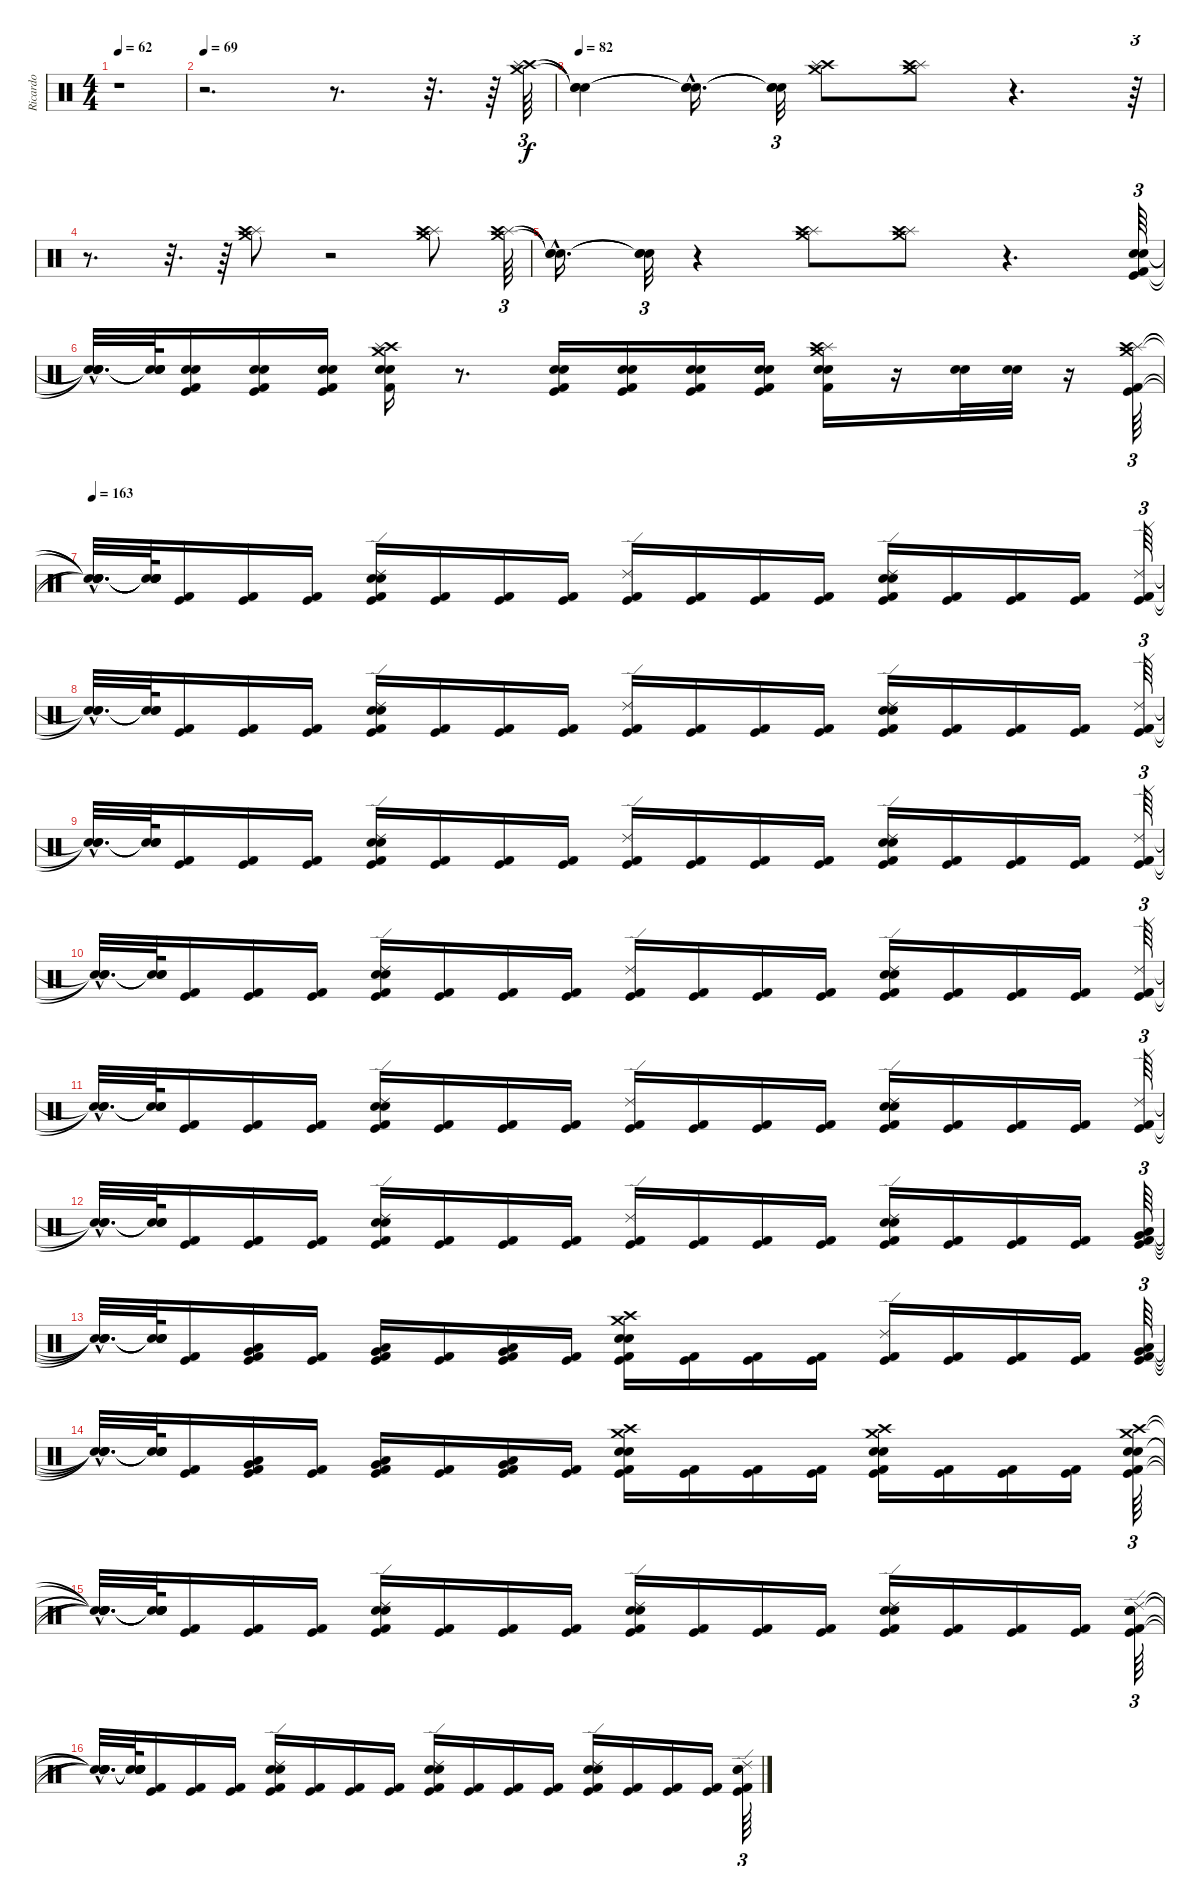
\track ("Ricardo" "Ricardo") {instrument percussion}
\staff {score}
\articulation defaults
\ts (4 4)
\tempo 62
\clef neutral
\ks c
r.1{dy f} |
\tempo 69
r.2{d} r.8{d} r.32{d} r.64 ("Crash high (hit)" "Splash (hit)" "Crash medium (hit)").64{tu (3 2)} |
\tempo 82
("Snare (hit)"{t} "Snare (hit)"{t} "Snare (hit)"{t}).4 ("Snare (hit)"{hac t} "Snare (hit)"{hac t} "Snare (hit)"{hac t}).16{d} ("Snare (hit)"{t} "Snare (hit)"{t} "Snare (hit)"{t}).32{tu (3 2)} ("Crash high (hit)" "Crash medium (hit)" "Splash (hit)").8 ("Splash (hit)" "Crash high (hit)" "Crash medium (hit)").8 r.4{d} r.64{tu (3 2)} |
r.8{d} r.32{d} r.64 ("Crash medium (hit)" "Splash (hit)" "Crash high (hit)").8 r.2 ("Crash medium (hit)" "Splash (hit)" "Crash high (hit)").8 ("Crash medium (hit)" "Splash (hit)" "Crash high (hit)").64{tu (3 2)} |
("Snare (hit)"{hac t} "Snare (hit)"{hac t} "Snare (hit)"{hac t}).16{d} ("Snare (hit)"{t} "Snare (hit)"{t} "Snare (hit)"{t}).32{tu (3 2)} r.4 ("Crash medium (hit)" "Splash (hit)" "Crash high (hit)").8 ("Splash (hit)" "Crash medium (hit)" "Crash high (hit)").8 r.4{d} ("Snare (hit) 2" "Electric Snare (hit)" "Kick (hit) 2" "Kick (hit)").64{tu (3 2)} |
("Snare (hit)"{hac t} "Snare (hit)"{hac t} "Snare (hit)"{hac t} "Snare (hit)"{hac t}).32{d} ("Snare (hit)"{t} "Snare (hit)"{t} "Snare (hit)"{t} "Snare (hit)"{t}).64 ("Electric Snare (hit)" "Snare (hit) 2" "Kick (hit) 2" "Kick (hit)").16 ("Electric Snare (hit)" "Snare (hit) 2" "Kick (hit) 2" "Kick (hit)").16 ("Electric Snare (hit)" "Snare (hit) 2" "Kick (hit) 2" "Kick (hit)").16 ("Crash high (hit)" "Splash (hit)" "Crash medium (hit)" "Electric Snare (hit)" "Snare (hit) 2" "Kick (hit) 2").16 r.8{d} ("Electric Snare (hit)" "Snare (hit) 2" "Kick (hit) 2" "Kick (hit)").16 ("Electric Snare (hit)" "Snare (hit) 2" "Kick (hit) 2" "Kick (hit)").16 ("Electric Snare (hit)" "Snare (hit) 2" "Kick (hit)" "Kick (hit) 2").16 ("Electric Snare (hit)" "Snare (hit) 2" "Kick (hit) 2" "Kick (hit)").16 ("Crash medium (hit)" "Splash (hit)" "Crash high (hit)" "Electric Snare (hit)" "Snare (hit) 2" "Kick (hit) 2").16 r.16 ("Electric Snare (hit)" "Snare (hit) 2").32 ("Electric Snare (hit)" "Snare (hit) 2").32 r.16 ("Splash (hit)" "Crash high (hit)" "Crash medium (hit)" "Kick (hit) 2" "Kick (hit)").64{tu (3 2)} |
\tempo 163
("Snare (hit)"{hac t} "Snare (hit)"{hac t} "Snare (hit)"{hac t} "Snare (hit)"{hac t} "Snare (hit)"{hac t}).32{d} ("Snare (hit)"{t} "Snare (hit)"{t} "Snare (hit)"{t} "Snare (hit)"{t} "Snare (hit)"{t}).64 ("Kick (hit) 2" "Kick (hit)").16 ("Kick (hit) 2" "Kick (hit)").16 ("Kick (hit) 2" "Kick (hit)").16 ("Snare (hit) 2" "Electric Snare (hit)" "Ride (edge) 2" "Kick (hit) 2" "Kick (hit)").16 ("Kick (hit) 2" "Kick (hit)").16 ("Kick (hit) 2" "Kick (hit)").16 ("Kick (hit) 2" "Kick (hit)").16 ("Ride (edge) 2" "Kick (hit) 2" "Kick (hit)").16 ("Kick (hit) 2" "Kick (hit)").16 ("Kick (hit) 2" "Kick (hit)").16 ("Kick (hit) 2" "Kick (hit)").16 ("Electric Snare (hit)" "Snare (hit) 2" "Ride (edge) 2" "Kick (hit) 2" "Kick (hit)").16 ("Kick (hit) 2" "Kick (hit)").16 ("Kick (hit) 2" "Kick (hit)").16 ("Kick (hit) 2" "Kick (hit)").16 ("Ride (edge) 2" "Kick (hit) 2" "Kick (hit)").64{tu (3 2)} |
("Snare (hit)"{hac t} "Snare (hit)"{hac t} "Snare (hit)"{hac t}).32{d} ("Snare (hit)"{t} "Snare (hit)"{t} "Snare (hit)"{t}).64 ("Kick (hit) 2" "Kick (hit)").16 ("Kick (hit) 2" "Kick (hit)").16 ("Kick (hit) 2" "Kick (hit)").16 ("Snare (hit) 2" "Electric Snare (hit)" "Ride (edge) 2" "Kick (hit) 2" "Kick (hit)").16 ("Kick (hit) 2" "Kick (hit)").16 ("Kick (hit) 2" "Kick (hit)").16 ("Kick (hit) 2" "Kick (hit)").16 ("Ride (edge) 2" "Kick (hit) 2" "Kick (hit)").16 ("Kick (hit) 2" "Kick (hit)").16 ("Kick (hit) 2" "Kick (hit)").16 ("Kick (hit) 2" "Kick (hit)").16 ("Electric Snare (hit)" "Snare (hit) 2" "Ride (edge) 2" "Kick (hit) 2" "Kick (hit)").16 ("Kick (hit) 2" "Kick (hit)").16 ("Kick (hit) 2" "Kick (hit)").16 ("Kick (hit) 2" "Kick (hit)").16 ("Ride (edge) 2" "Kick (hit) 2" "Kick (hit)").64{tu (3 2)} |
("Snare (hit)"{hac t} "Snare (hit)"{hac t} "Snare (hit)"{hac t}).32{d} ("Snare (hit)"{t} "Snare (hit)"{t} "Snare (hit)"{t}).64 ("Kick (hit) 2" "Kick (hit)").16 ("Kick (hit) 2" "Kick (hit)").16 ("Kick (hit) 2" "Kick (hit)").16 ("Snare (hit) 2" "Electric Snare (hit)" "Ride (edge) 2" "Kick (hit) 2" "Kick (hit)").16 ("Kick (hit) 2" "Kick (hit)").16 ("Kick (hit) 2" "Kick (hit)").16 ("Kick (hit) 2" "Kick (hit)").16 ("Ride (edge) 2" "Kick (hit) 2" "Kick (hit)").16 ("Kick (hit) 2" "Kick (hit)").16 ("Kick (hit) 2" "Kick (hit)").16 ("Kick (hit) 2" "Kick (hit)").16 ("Electric Snare (hit)" "Snare (hit) 2" "Ride (edge) 2" "Kick (hit) 2" "Kick (hit)").16 ("Kick (hit) 2" "Kick (hit)").16 ("Kick (hit) 2" "Kick (hit)").16 ("Kick (hit) 2" "Kick (hit)").16 ("Ride (edge) 2" "Kick (hit) 2" "Kick (hit)").64{tu (3 2)} |
("Snare (hit)"{hac t} "Snare (hit)"{hac t} "Snare (hit)"{hac t}).32{d} ("Snare (hit)"{t} "Snare (hit)"{t} "Snare (hit)"{t}).64 ("Kick (hit) 2" "Kick (hit)").16 ("Kick (hit) 2" "Kick (hit)").16 ("Kick (hit) 2" "Kick (hit)").16 ("Snare (hit) 2" "Electric Snare (hit)" "Ride (edge) 2" "Kick (hit) 2" "Kick (hit)").16 ("Kick (hit) 2" "Kick (hit)").16 ("Kick (hit) 2" "Kick (hit)").16 ("Kick (hit) 2" "Kick (hit)").16 ("Ride (edge) 2" "Kick (hit) 2" "Kick (hit)").16 ("Kick (hit) 2" "Kick (hit)").16 ("Kick (hit) 2" "Kick (hit)").16 ("Kick (hit) 2" "Kick (hit)").16 ("Electric Snare (hit)" "Snare (hit) 2" "Ride (edge) 2" "Kick (hit) 2" "Kick (hit)").16 ("Kick (hit) 2" "Kick (hit)").16 ("Kick (hit) 2" "Kick (hit)").16 ("Kick (hit) 2" "Kick (hit)").16 ("Ride (edge) 2" "Kick (hit) 2" "Kick (hit)").64{tu (3 2)} |
("Snare (hit)"{hac t} "Snare (hit)"{hac t} "Snare (hit)"{hac t}).32{d} ("Snare (hit)"{t} "Snare (hit)"{t} "Snare (hit)"{t}).64 ("Kick (hit) 2" "Kick (hit)").16 ("Kick (hit) 2" "Kick (hit)").16 ("Kick (hit) 2" "Kick (hit)").16 ("Snare (hit) 2" "Electric Snare (hit)" "Ride (edge) 2" "Kick (hit) 2" "Kick (hit)").16 ("Kick (hit) 2" "Kick (hit)").16 ("Kick (hit) 2" "Kick (hit)").16 ("Kick (hit) 2" "Kick (hit)").16 ("Ride (edge) 2" "Kick (hit) 2" "Kick (hit)").16 ("Kick (hit) 2" "Kick (hit)").16 ("Kick (hit) 2" "Kick (hit)").16 ("Kick (hit) 2" "Kick (hit)").16 ("Electric Snare (hit)" "Snare (hit) 2" "Ride (edge) 2" "Kick (hit) 2" "Kick (hit)").16 ("Kick (hit) 2" "Kick (hit)").16 ("Kick (hit) 2" "Kick (hit)").16 ("Kick (hit) 2" "Kick (hit)").16 ("Ride (edge) 2" "Kick (hit) 2" "Kick (hit)").64{tu (3 2)} |
("Snare (hit)"{hac t} "Snare (hit)"{hac t} "Snare (hit)"{hac t}).32{d} ("Snare (hit)"{t} "Snare (hit)"{t} "Snare (hit)"{t}).64 ("Kick (hit) 2" "Kick (hit)").16 ("Kick (hit) 2" "Kick (hit)").16 ("Kick (hit) 2" "Kick (hit)").16 ("Snare (hit) 2" "Electric Snare (hit)" "Ride (edge) 2" "Kick (hit) 2" "Kick (hit)").16 ("Kick (hit) 2" "Kick (hit)").16 ("Kick (hit) 2" "Kick (hit)").16 ("Kick (hit) 2" "Kick (hit)").16 ("Ride (edge) 2" "Kick (hit) 2" "Kick (hit)").16 ("Kick (hit) 2" "Kick (hit)").16 ("Kick (hit) 2" "Kick (hit)").16 ("Kick (hit) 2" "Kick (hit)").16 ("Electric Snare (hit)" "Snare (hit) 2" "Ride (edge) 2" "Kick (hit) 2" "Kick (hit)").16 ("Kick (hit) 2" "Kick (hit)").16 ("Kick (hit) 2" "Kick (hit)").16 ("Kick (hit) 2" "Kick (hit)").16 ("Very Low Tom (hit)" "Low Floor Tom (hit)" "Kick (hit) 2" "Kick (hit)").64{tu (3 2)} |
("Snare (hit)"{hac t} "Snare (hit)"{hac t} "Snare (hit)"{hac t} "Snare (hit)"{hac t}).32{d} ("Snare (hit)"{t} "Snare (hit)"{t} "Snare (hit)"{t} "Snare (hit)"{t}).64 ("Kick (hit) 2" "Kick (hit)").16 ("Very Low Tom (hit)" "Low Floor Tom (hit)" "Kick (hit) 2" "Kick (hit)").16 ("Kick (hit) 2" "Kick (hit)").16 ("Very Low Tom (hit)" "Low Floor Tom (hit)" "Kick (hit) 2" "Kick (hit)").16 ("Kick (hit) 2" "Kick (hit)").16 ("Very Low Tom (hit)" "Low Floor Tom (hit)" "Kick (hit) 2" "Kick (hit)").16 ("Kick (hit) 2" "Kick (hit)").16 ("Electric Snare (hit)" "Snare (hit) 2" "Crash medium (hit)" "Crash high (hit)" "Kick (hit) 2" "Kick (hit)").16 ("Kick (hit) 2" "Kick (hit)").16 ("Kick (hit) 2" "Kick (hit)").16 ("Kick (hit) 2" "Kick (hit)").16 ("Ride (edge) 2" "Kick (hit) 2" "Kick (hit)").16 ("Kick (hit) 2" "Kick (hit)").16 ("Kick (hit) 2" "Kick (hit)").16 ("Kick (hit) 2" "Kick (hit)").16 ("Very Low Tom (hit)" "Low Floor Tom (hit)" "Kick (hit) 2" "Kick (hit)").64{tu (3 2)} |
("Snare (hit)"{hac t} "Snare (hit)"{hac t} "Snare (hit)"{hac t} "Snare (hit)"{hac t}).32{d} ("Snare (hit)"{t} "Snare (hit)"{t} "Snare (hit)"{t} "Snare (hit)"{t}).64 ("Kick (hit) 2" "Kick (hit)").16 ("Very Low Tom (hit)" "Low Floor Tom (hit)" "Kick (hit) 2" "Kick (hit)").16 ("Kick (hit) 2" "Kick (hit)").16 ("Very Low Tom (hit)" "Low Floor Tom (hit)" "Kick (hit) 2" "Kick (hit)").16 ("Kick (hit) 2" "Kick (hit)").16 ("Very Low Tom (hit)" "Low Floor Tom (hit)" "Kick (hit) 2" "Kick (hit)").16 ("Kick (hit) 2" "Kick (hit)").16 ("Electric Snare (hit)" "Snare (hit) 2" "Crash medium (hit)" "Crash high (hit)" "Kick (hit) 2" "Kick (hit)").16 ("Kick (hit) 2" "Kick (hit)").16 ("Kick (hit) 2" "Kick (hit)").16 ("Kick (hit) 2" "Kick (hit)").16 ("Crash high (hit)" "Electric Snare (hit)" "Snare (hit) 2" "Crash medium (hit)" "Kick (hit) 2" "Kick (hit)").16 ("Kick (hit) 2" "Kick (hit)").16 ("Kick (hit) 2" "Kick (hit)").16 ("Kick (hit) 2" "Kick (hit)").16 ("Crash high (hit)" "Crash medium (hit)" "Electric Snare (hit)" "Snare (hit) 2" "Kick (hit) 2" "Kick (hit)").64{tu (3 2)} |
("Snare (hit)"{hac t} "Snare (hit)"{hac t} "Snare (hit)"{hac t} "Snare (hit)"{hac t} "Snare (hit)"{hac t} "Snare (hit)"{hac t}).32{d} ("Snare (hit)"{t} "Snare (hit)"{t} "Snare (hit)"{t} "Snare (hit)"{t} "Snare (hit)"{t} "Snare (hit)"{t}).64 ("Kick (hit) 2" "Kick (hit)").16 ("Kick (hit) 2" "Kick (hit)").16 ("Kick (hit) 2" "Kick (hit)").16 ("Ride (edge) 2" "Electric Snare (hit)" "Snare (hit) 2" "Kick (hit) 2" "Kick (hit)").16 ("Kick (hit) 2" "Kick (hit)").16 ("Kick (hit) 2" "Kick (hit)").16 ("Kick (hit) 2" "Kick (hit)").16 ("Ride (edge) 2" "Electric Snare (hit)" "Snare (hit) 2" "Kick (hit) 2" "Kick (hit)").16 ("Kick (hit) 2" "Kick (hit)").16 ("Kick (hit) 2" "Kick (hit)").16 ("Kick (hit) 2" "Kick (hit)").16 ("Electric Snare (hit)" "Snare (hit) 2" "Ride (edge) 2" "Kick (hit) 2" "Kick (hit)").16 ("Kick (hit) 2" "Kick (hit)").16 ("Kick (hit) 2" "Kick (hit)").16 ("Kick (hit) 2" "Kick (hit)").16 ("Ride (edge) 2" "Electric Snare (hit)" "Snare (hit) 2" "Kick (hit) 2" "Kick (hit)").64{tu (3 2)} |
("Snare (hit)"{hac t} "Snare (hit)"{hac t} "Snare (hit)"{hac t} "Snare (hit)"{hac t} "Snare (hit)"{hac t}).32{d} ("Snare (hit)"{t} "Snare (hit)"{t} "Snare (hit)"{t} "Snare (hit)"{t} "Snare (hit)"{t}).64 ("Kick (hit) 2" "Kick (hit)").16 ("Kick (hit) 2" "Kick (hit)").16 ("Kick (hit) 2" "Kick (hit)").16 ("Ride (edge) 2" "Electric Snare (hit)" "Snare (hit) 2" "Kick (hit) 2" "Kick (hit)").16 ("Kick (hit) 2" "Kick (hit)").16 ("Kick (hit) 2" "Kick (hit)").16 ("Kick (hit) 2" "Kick (hit)").16 ("Ride (edge) 2" "Electric Snare (hit)" "Snare (hit) 2" "Kick (hit) 2" "Kick (hit)").16 ("Kick (hit) 2" "Kick (hit)").16 ("Kick (hit) 2" "Kick (hit)").16 ("Kick (hit) 2" "Kick (hit)").16 ("Electric Snare (hit)" "Snare (hit) 2" "Ride (edge) 2" "Kick (hit) 2" "Kick (hit)").16 ("Kick (hit) 2" "Kick (hit)").16 ("Kick (hit) 2" "Kick (hit)").16 ("Kick (hit) 2" "Kick (hit)").16 ("Ride (edge) 2" "Electric Snare (hit)" "Snare (hit) 2" "Kick (hit) 2" "Kick (hit)").64{tu (3 2)}
